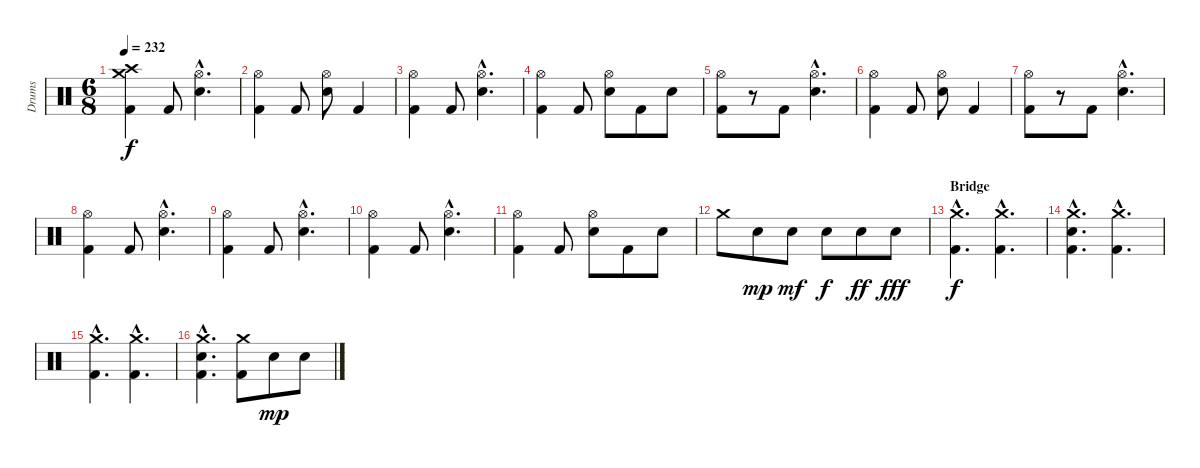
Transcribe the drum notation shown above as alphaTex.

\track ("Drums" "Drums") {instrument percussion}
\staff {score}
\articulation defaults
\ts (6 8)
\tempo 232
\clef neutral
\ks c
("Crash medium (hit)" "Crash high (hit)" "Kick (hit) 2").4{dy f} "Kick (hit) 2".8 ("Hi-Hat (open)"{hac} "Snare (hit) 2"{hac}).4{d} |
("Hi-Hat (open)" "Kick (hit) 2").4 "Kick (hit) 2".8 ("Hi-Hat (open)" "Snare (hit) 2").8 "Kick (hit) 2".4 |
("Hi-Hat (open)" "Kick (hit) 2").4 "Kick (hit) 2".8 ("Hi-Hat (open)"{hac} "Snare (hit) 2"{hac}).4{d} |
("Hi-Hat (open)" "Kick (hit) 2").4 "Kick (hit) 2".8 ("Hi-Hat (open)" "Snare (hit) 2").8 "Kick (hit) 2".8 "Snare (hit) 2".8 |
("Hi-Hat (open)" "Kick (hit) 2").8 r.8 "Kick (hit) 2".8 ("Hi-Hat (open)"{hac} "Snare (hit) 2"{hac}).4{d} |
("Hi-Hat (open)" "Kick (hit) 2").4 "Kick (hit) 2".8 ("Hi-Hat (open)" "Snare (hit) 2").8 "Kick (hit) 2".4 |
("Hi-Hat (open)" "Kick (hit) 2").8 r.8 "Kick (hit) 2".8 ("Hi-Hat (open)"{hac} "Snare (hit) 2"{hac}).4{d} |
("Hi-Hat (open)" "Kick (hit) 2").4 "Kick (hit) 2".8 ("Hi-Hat (open)"{hac} "Snare (hit) 2"{hac}).4{d} |
("Hi-Hat (open)" "Kick (hit) 2").4 "Kick (hit) 2".8 ("Hi-Hat (open)"{hac} "Snare (hit) 2"{hac}).4{d} |
("Hi-Hat (open)" "Kick (hit) 2").4 "Kick (hit) 2".8 ("Hi-Hat (open)"{hac} "Snare (hit) 2"{hac}).4{d} |
("Hi-Hat (open)" "Kick (hit) 2").4 "Kick (hit) 2".8 ("Hi-Hat (open)" "Snare (hit) 2").8 "Kick (hit) 2".8 "Snare (hit) 2".8 |
"Crash medium (hit)".8 "Snare (hit) 2".8{dy mp} "Snare (hit) 2".8{dy mf} "Snare (hit) 2".8{dy f} "Snare (hit) 2".8{dy ff} "Snare (hit) 2".8{dy fff} |
\section ("" "Bridge")
("Crash medium (hit)"{hac} "Kick (hit) 2"{hac}).4{d dy f} ("Crash medium (hit)"{hac} "Kick (hit) 2"{hac}).4{d} |
("Crash medium (hit)"{hac} "Snare (hit) 2"{hac} "Kick (hit) 2"{hac}).4{d} ("Crash medium (hit)"{hac} "Kick (hit) 2"{hac}).4{d} |
("Crash medium (hit)"{hac} "Kick (hit) 2"{hac}).4{d} ("Crash medium (hit)"{hac} "Kick (hit) 2"{hac}).4{d} |
("Crash medium (hit)"{hac} "Snare (hit) 2"{hac} "Kick (hit) 2"{hac}).4{d} ("Crash medium (hit)" "Kick (hit) 2").8 "Snare (hit) 2".8{dy mp} "Snare (hit) 2".8
